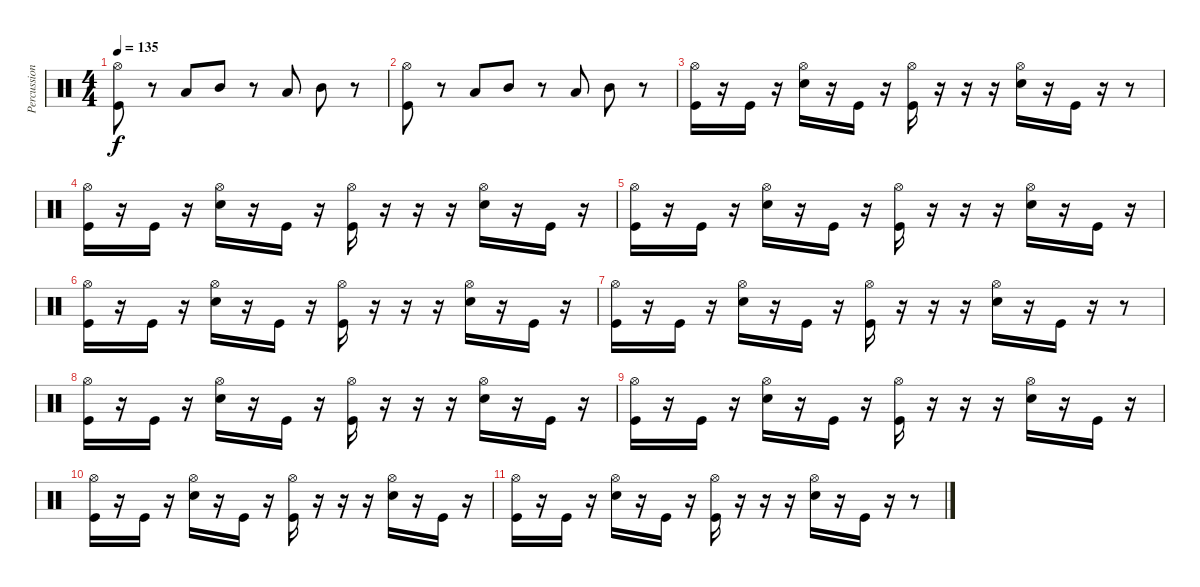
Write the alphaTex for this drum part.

\track ("Percussion" "Percussion") {instrument percussion}
\staff {score}
\articulation defaults
\ts (4 4)
\tempo 135
\clef neutral
\ks c
("Kick (hit)" "Hi-Hat (open)").8{dy f} r.8 "Low Tom (hit)".8 "Mid Tom (hit)".8 r.8 "Low Tom (hit)".8 "Mid Tom (hit)".8 r.8 |
("Kick (hit)" "Hi-Hat (open)").8 r.8 "Low Tom (hit)".8 "Mid Tom (hit)".8 r.8 "Low Tom (hit)".8 "Mid Tom (hit)".8 r.8 |
("Hi-Hat (open)" "Kick (hit)").16 r.16 "Kick (hit)".16 r.16 ("Hi-Hat (open)" "Snare (hit) 2").16 r.16 "Kick (hit)".16 r.16 ("Hi-Hat (open)" "Kick (hit)").16 r.16 r.16 r.16 ("Hi-Hat (open)" "Snare (hit) 2").16 r.16 "Kick (hit)".16 r.16 r.8 |
("Hi-Hat (open)" "Kick (hit)").16 r.16 "Kick (hit)".16 r.16 ("Hi-Hat (open)" "Snare (hit) 2").16 r.16 "Kick (hit)".16 r.16 ("Hi-Hat (open)" "Kick (hit)").16 r.16 r.16 r.16 ("Hi-Hat (open)" "Snare (hit) 2").16 r.16 "Kick (hit)".16 r.16 |
("Hi-Hat (open)" "Kick (hit)").16 r.16 "Kick (hit)".16 r.16 ("Hi-Hat (open)" "Snare (hit) 2").16 r.16 "Kick (hit)".16 r.16 ("Hi-Hat (open)" "Kick (hit)").16 r.16 r.16 r.16 ("Hi-Hat (open)" "Snare (hit) 2").16 r.16 "Kick (hit)".16 r.16 |
("Hi-Hat (open)" "Kick (hit)").16 r.16 "Kick (hit)".16 r.16 ("Hi-Hat (open)" "Snare (hit) 2").16 r.16 "Kick (hit)".16 r.16 ("Hi-Hat (open)" "Kick (hit)").16 r.16 r.16 r.16 ("Hi-Hat (open)" "Snare (hit) 2").16 r.16 "Kick (hit)".16 r.16 |
("Hi-Hat (open)" "Kick (hit)").16 r.16 "Kick (hit)".16 r.16 ("Hi-Hat (open)" "Snare (hit) 2").16 r.16 "Kick (hit)".16 r.16 ("Hi-Hat (open)" "Kick (hit)").16 r.16 r.16 r.16 ("Hi-Hat (open)" "Snare (hit) 2").16 r.16 "Kick (hit)".16 r.16 r.8 |
("Hi-Hat (open)" "Kick (hit)").16 r.16 "Kick (hit)".16 r.16 ("Hi-Hat (open)" "Snare (hit) 2").16 r.16 "Kick (hit)".16 r.16 ("Hi-Hat (open)" "Kick (hit)").16 r.16 r.16 r.16 ("Hi-Hat (open)" "Snare (hit) 2").16 r.16 "Kick (hit)".16 r.16 |
("Hi-Hat (open)" "Kick (hit)").16 r.16 "Kick (hit)".16 r.16 ("Hi-Hat (open)" "Snare (hit) 2").16 r.16 "Kick (hit)".16 r.16 ("Hi-Hat (open)" "Kick (hit)").16 r.16 r.16 r.16 ("Hi-Hat (open)" "Snare (hit) 2").16 r.16 "Kick (hit)".16 r.16 |
("Hi-Hat (open)" "Kick (hit)").16 r.16 "Kick (hit)".16 r.16 ("Hi-Hat (open)" "Snare (hit) 2").16 r.16 "Kick (hit)".16 r.16 ("Hi-Hat (open)" "Kick (hit)").16 r.16 r.16 r.16 ("Hi-Hat (open)" "Snare (hit) 2").16 r.16 "Kick (hit)".16 r.16 |
("Hi-Hat (open)" "Kick (hit)").16 r.16 "Kick (hit)".16 r.16 ("Hi-Hat (open)" "Snare (hit) 2").16 r.16 "Kick (hit)".16 r.16 ("Hi-Hat (open)" "Kick (hit)").16 r.16 r.16 r.16 ("Hi-Hat (open)" "Snare (hit) 2").16 r.16 "Kick (hit)".16 r.16 r.8
